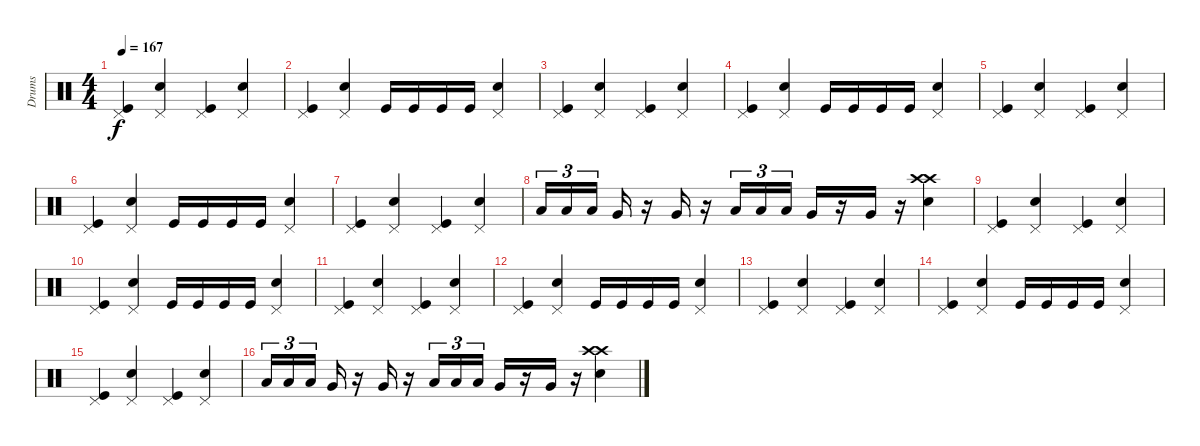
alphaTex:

\track ("Drums" "Drums") {instrument percussion}
\staff {score}
\articulation defaults
\ts (4 4)
\tempo 167
\clef neutral
\ks c
("Pedal Hi-Hat (hit)" "Kick (hit)").4{dy f} ("Pedal Hi-Hat (hit)" "Snare (hit) 2").4 ("Pedal Hi-Hat (hit)" "Kick (hit)").4 ("Pedal Hi-Hat (hit)" "Snare (hit) 2").4 |
("Pedal Hi-Hat (hit)" "Kick (hit)").4 ("Pedal Hi-Hat (hit)" "Snare (hit) 2").4 "Kick (hit)".16 "Kick (hit)".16 "Kick (hit)".16 "Kick (hit)".16 ("Pedal Hi-Hat (hit)" "Snare (hit) 2").4 |
("Pedal Hi-Hat (hit)" "Kick (hit)").4 ("Pedal Hi-Hat (hit)" "Snare (hit) 2").4 ("Pedal Hi-Hat (hit)" "Kick (hit)").4 ("Pedal Hi-Hat (hit)" "Snare (hit) 2").4 |
("Pedal Hi-Hat (hit)" "Kick (hit)").4 ("Pedal Hi-Hat (hit)" "Snare (hit) 2").4 "Kick (hit)".16 "Kick (hit)".16 "Kick (hit)".16 "Kick (hit)".16 ("Pedal Hi-Hat (hit)" "Snare (hit) 2").4 |
("Pedal Hi-Hat (hit)" "Kick (hit)").4 ("Pedal Hi-Hat (hit)" "Snare (hit) 2").4 ("Pedal Hi-Hat (hit)" "Kick (hit)").4 ("Pedal Hi-Hat (hit)" "Snare (hit) 2").4 |
("Pedal Hi-Hat (hit)" "Kick (hit)").4 ("Pedal Hi-Hat (hit)" "Snare (hit) 2").4 "Kick (hit)".16 "Kick (hit)".16 "Kick (hit)".16 "Kick (hit)".16 ("Pedal Hi-Hat (hit)" "Snare (hit) 2").4 |
("Pedal Hi-Hat (hit)" "Kick (hit)").4 ("Pedal Hi-Hat (hit)" "Snare (hit) 2").4 ("Pedal Hi-Hat (hit)" "Kick (hit)").4 ("Pedal Hi-Hat (hit)" "Snare (hit) 2").4 |
"Low Tom (hit)".16{tu (3 2)} "Low Tom (hit)".16{tu (3 2)} "Low Tom (hit)".16{tu (3 2)} "Very Low Tom (hit)".16 r.16 "Very Low Tom (hit)".16 r.16 "Low Tom (hit)".16{tu (3 2)} "Low Tom (hit)".16{tu (3 2)} "Low Tom (hit)".16{tu (3 2)} "Very Low Tom (hit)".16 r.16 "Very Low Tom (hit)".16 r.16 ("Crash high (hit)" "Crash high (hit)" "Electric Snare (hit)").4 |
("Pedal Hi-Hat (hit)" "Kick (hit)").4 ("Pedal Hi-Hat (hit)" "Snare (hit) 2").4 ("Pedal Hi-Hat (hit)" "Kick (hit)").4 ("Pedal Hi-Hat (hit)" "Snare (hit) 2").4 |
("Pedal Hi-Hat (hit)" "Kick (hit)").4 ("Pedal Hi-Hat (hit)" "Snare (hit) 2").4 "Kick (hit)".16 "Kick (hit)".16 "Kick (hit)".16 "Kick (hit)".16 ("Pedal Hi-Hat (hit)" "Snare (hit) 2").4 |
("Pedal Hi-Hat (hit)" "Kick (hit)").4 ("Pedal Hi-Hat (hit)" "Snare (hit) 2").4 ("Pedal Hi-Hat (hit)" "Kick (hit)").4 ("Pedal Hi-Hat (hit)" "Snare (hit) 2").4 |
("Pedal Hi-Hat (hit)" "Kick (hit)").4 ("Pedal Hi-Hat (hit)" "Snare (hit) 2").4 "Kick (hit)".16 "Kick (hit)".16 "Kick (hit)".16 "Kick (hit)".16 ("Pedal Hi-Hat (hit)" "Snare (hit) 2").4 |
("Pedal Hi-Hat (hit)" "Kick (hit)").4 ("Pedal Hi-Hat (hit)" "Snare (hit) 2").4 ("Pedal Hi-Hat (hit)" "Kick (hit)").4 ("Pedal Hi-Hat (hit)" "Snare (hit) 2").4 |
("Pedal Hi-Hat (hit)" "Kick (hit)").4 ("Pedal Hi-Hat (hit)" "Snare (hit) 2").4 "Kick (hit)".16 "Kick (hit)".16 "Kick (hit)".16 "Kick (hit)".16 ("Pedal Hi-Hat (hit)" "Snare (hit) 2").4 |
("Pedal Hi-Hat (hit)" "Kick (hit)").4 ("Pedal Hi-Hat (hit)" "Snare (hit) 2").4 ("Pedal Hi-Hat (hit)" "Kick (hit)").4 ("Pedal Hi-Hat (hit)" "Snare (hit) 2").4 |
"Low Tom (hit)".16{tu (3 2)} "Low Tom (hit)".16{tu (3 2)} "Low Tom (hit)".16{tu (3 2)} "Very Low Tom (hit)".16 r.16 "Very Low Tom (hit)".16 r.16 "Low Tom (hit)".16{tu (3 2)} "Low Tom (hit)".16{tu (3 2)} "Low Tom (hit)".16{tu (3 2)} "Very Low Tom (hit)".16 r.16 "Very Low Tom (hit)".16 r.16 ("Crash high (hit)" "Crash high (hit)" "Electric Snare (hit)").4
